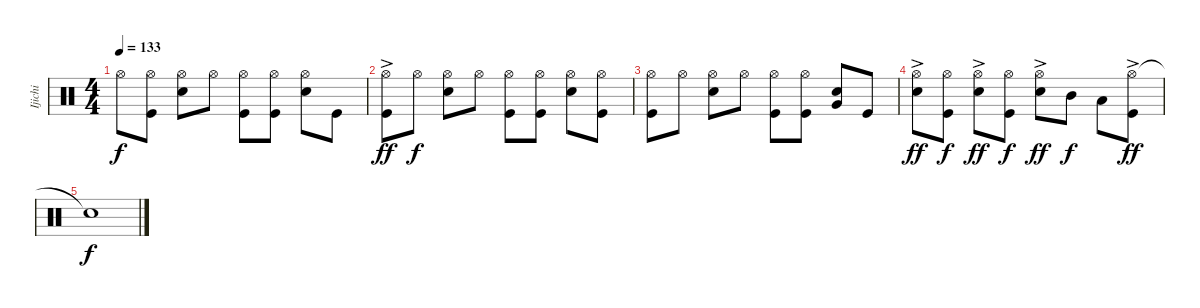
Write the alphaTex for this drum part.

\track ("Ijichi" "Ijichi") {instrument percussion}
\staff {score}
\articulation defaults
\ts (4 4)
\tempo 133
\clef neutral
\ks c "Hi-Hat (open)".8{dy f}
("Hi-Hat (open)" "Kick (hit)").8 ("Hi-Hat (open)" "Snare (hit) 2").8 "Hi-Hat (open)".8 ("Hi-Hat (open)" "Kick (hit)").8 ("Hi-Hat (open)" "Kick (hit)").8 ("Hi-Hat (open)" "Snare (hit) 2").8 "Kick (hit)".8 |
("Hi-Hat (open)"{ac} "Kick (hit)").8{dy ff} "Hi-Hat (open)".8{dy f} ("Hi-Hat (open)" "Snare (hit) 2").8 "Hi-Hat (open)".8 ("Hi-Hat (open)" "Kick (hit)").8 ("Hi-Hat (open)" "Kick (hit)").8 ("Hi-Hat (open)" "Snare (hit) 2").8 ("Hi-Hat (open)" "Kick (hit)").8 |
("Hi-Hat (open)" "Kick (hit)").8 "Hi-Hat (open)".8 ("Hi-Hat (open)" "Snare (hit) 2").8 "Hi-Hat (open)".8 ("Hi-Hat (open)" "Kick (hit)").8 ("Hi-Hat (open)" "Kick (hit)").8 ("Snare (hit) 2" "Very Low Tom (hit)").8 "Kick (hit)".8 |
("Hi-Hat (open)"{ac} "Snare (hit) 2").8{dy ff} ("Hi-Hat (open)" "Kick (hit)").8{dy f} ("Hi-Hat (open)"{ac} "Snare (hit) 2").8{dy ff} ("Hi-Hat (open)" "Kick (hit)").8{dy f} ("Hi-Hat (open)"{ac} "Snare (hit) 2").8{dy ff} "Mid Tom (hit)".8{dy f} "Low Tom (hit)".8 ("Hi-Hat (open)"{ac} "Kick (hit)").8{dy ff} |
"Snare (hit)"{t}.1{dy f}
